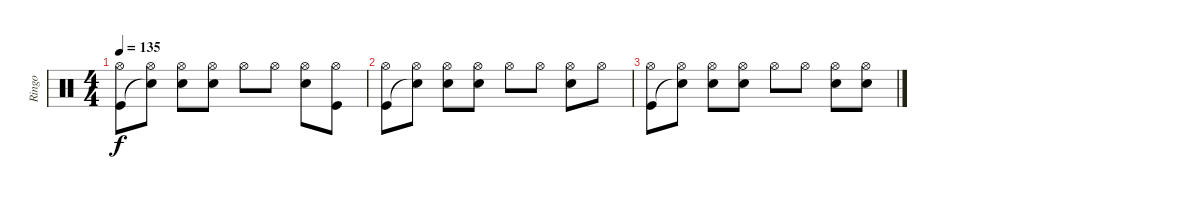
\track ("Ringo" "Ringo") {instrument percussion}
\staff {score}
\articulation defaults
\ts (4 4)
\tempo 135
\clef neutral
\ks c
("Hi-Hat (open)" "Kick (hit)").8{dy f volume 6} ("Hi-Hat (open)" "Snare (hit)"{t}).8 ("Hi-Hat (open)" "Snare (hit) 2").8 ("Hi-Hat (open)" "Snare (hit) 2").8 "Hi-Hat (open)".8 "Hi-Hat (open)".8 ("Hi-Hat (open)" "Snare (hit) 2").8 ("Hi-Hat (open)" "Kick (hit)").8 |
("Hi-Hat (open)" "Kick (hit)").8{volume 4} ("Hi-Hat (open)" "Snare (hit)"{t}).8 ("Hi-Hat (open)" "Snare (hit) 2").8 ("Hi-Hat (open)" "Snare (hit) 2").8 "Hi-Hat (open)".8 "Hi-Hat (open)".8 ("Hi-Hat (open)" "Snare (hit) 2").8 "Hi-Hat (open)".8 |
("Hi-Hat (open)" "Kick (hit)").8{volume 2} ("Hi-Hat (open)" "Snare (hit)"{t}).8 ("Hi-Hat (open)" "Snare (hit) 2").8 ("Hi-Hat (open)" "Snare (hit) 2").8 "Hi-Hat (open)".8 "Hi-Hat (open)".8 ("Hi-Hat (open)" "Snare (hit) 2").8 ("Hi-Hat (open)" "Snare (hit) 2").8
